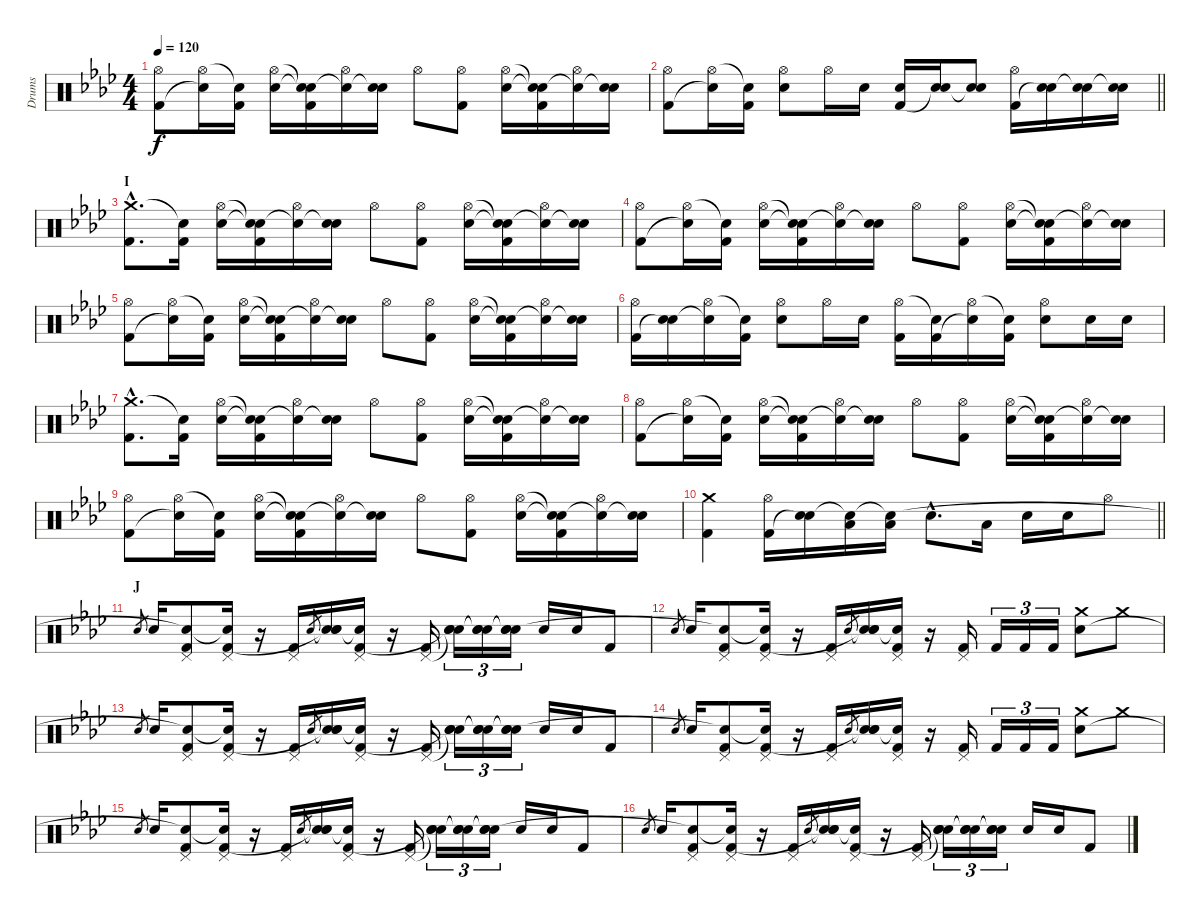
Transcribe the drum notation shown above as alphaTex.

\track ("Drums" "Drums") {instrument percussion}
\staff {score}
\articulation defaults
\ts (4 4)
\tempo 120
\clef neutral
\ks fminor
("Hi-Hat (open)" "Kick (hit) 2").8{dy f} ("Hi-Hat (open)" "Snare (hit)"{t}).16 ("Snare (hit)"{t} "Kick (hit) 2").16 ("Hi-Hat (open)" "Electric Snare (hit)").16 ("Snare (hit)"{t} "Snare (hit)"{t} "Kick (hit) 2").16 ("Hi-Hat (open)" "Snare (hit)"{t}).16 ("Electric Snare (hit)" "Snare (hit)"{t}).16 "Hi-Hat (open)".8 ("Hi-Hat (open)" "Kick (hit) 2").8 ("Hi-Hat (open)" "Electric Snare (hit)").16 ("Snare (hit)"{t} "Snare (hit)"{t} "Kick (hit) 2").16 ("Hi-Hat (open)" "Snare (hit)"{t}).16 ("Electric Snare (hit)" "Snare (hit)"{t}).16 |
\barLineRight lightlight
("Hi-Hat (open)" "Kick (hit) 2").8 ("Hi-Hat (open)" "Snare (hit)"{t}).16 ("Snare (hit)"{t} "Kick (hit) 2").16 ("Hi-Hat (open)" "Electric Snare (hit)").8 "Hi-Hat (open)".16 "Electric Snare (hit)".16 ("Electric Snare (hit)" "Kick (hit) 2").16 ("Electric Snare (hit)" "Snare (hit)"{t}).16 ("Electric Snare (hit)" "Snare (hit)"{t}).8 ("Hi-Hat (open)" "Kick (hit) 2").16 ("Electric Snare (hit)" "Snare (hit)"{t}).16 ("Electric Snare (hit)" "Snare (hit)"{t}).16 ("Electric Snare (hit)" "Snare (hit)"{t}).16 |
\section ("" "I")
("Crash medium (hit)"{hac} "Kick (hit) 2"{hac}).8{d} ("Snare (hit)"{t} "Kick (hit) 2").16 ("Hi-Hat (open)" "Electric Snare (hit)").16 ("Snare (hit)"{t} "Snare (hit)"{t} "Kick (hit) 2").16 ("Hi-Hat (open)" "Snare (hit)"{t}).16 ("Electric Snare (hit)" "Snare (hit)"{t}).16 "Hi-Hat (open)".8 ("Hi-Hat (open)" "Kick (hit) 2").8 ("Hi-Hat (open)" "Electric Snare (hit)").16 ("Snare (hit)"{t} "Snare (hit)"{t} "Kick (hit) 2").16 ("Hi-Hat (open)" "Snare (hit)"{t}).16 ("Electric Snare (hit)" "Snare (hit)"{t}).16 |
("Hi-Hat (open)" "Kick (hit) 2").8 ("Hi-Hat (open)" "Snare (hit)"{t}).16 ("Snare (hit)"{t} "Kick (hit) 2").16 ("Hi-Hat (open)" "Electric Snare (hit)").16 ("Snare (hit)"{t} "Snare (hit)"{t} "Kick (hit) 2").16 ("Hi-Hat (open)" "Snare (hit)"{t}).16 ("Electric Snare (hit)" "Snare (hit)"{t}).16 "Hi-Hat (open)".8 ("Hi-Hat (open)" "Kick (hit) 2").8 ("Hi-Hat (open)" "Electric Snare (hit)").16 ("Snare (hit)"{t} "Snare (hit)"{t} "Kick (hit) 2").16 ("Hi-Hat (open)" "Snare (hit)"{t}).16 ("Electric Snare (hit)" "Snare (hit)"{t}).16 |
("Hi-Hat (open)" "Kick (hit) 2").8 ("Hi-Hat (open)" "Snare (hit)"{t}).16 ("Snare (hit)"{t} "Kick (hit) 2").16 ("Hi-Hat (open)" "Electric Snare (hit)").16 ("Snare (hit)"{t} "Snare (hit)"{t} "Kick (hit) 2").16 ("Hi-Hat (open)" "Snare (hit)"{t}).16 ("Electric Snare (hit)" "Snare (hit)"{t}).16 "Hi-Hat (open)".8 ("Hi-Hat (open)" "Kick (hit) 2").8 ("Hi-Hat (open)" "Electric Snare (hit)").16 ("Snare (hit)"{t} "Snare (hit)"{t} "Kick (hit) 2").16 ("Hi-Hat (open)" "Snare (hit)"{t}).16 ("Electric Snare (hit)" "Snare (hit)"{t}).16 |
("Hi-Hat (open)" "Kick (hit) 2").16 ("Electric Snare (hit)" "Snare (hit)"{t}).16 ("Hi-Hat (open)" "Snare (hit)"{t}).16 ("Snare (hit)"{t} "Kick (hit) 2").16 ("Hi-Hat (open)" "Electric Snare (hit)").8 "Hi-Hat (open)".16 "Electric Snare (hit)".16 ("Hi-Hat (open)" "Kick (hit) 2").16 ("Snare (hit)"{t} "Kick (hit) 2").16 ("Hi-Hat (open)" "Snare (hit)"{t}).16 ("Snare (hit)"{t} "Kick (hit) 2").16 ("Hi-Hat (open)" "Electric Snare (hit)").8 "Electric Snare (hit)".16 "Electric Snare (hit)".16 |
("Crash medium (hit)"{hac} "Kick (hit) 2"{hac}).8{d} ("Snare (hit)"{t} "Kick (hit) 2").16 ("Hi-Hat (open)" "Electric Snare (hit)").16 ("Snare (hit)"{t} "Snare (hit)"{t} "Kick (hit) 2").16 ("Hi-Hat (open)" "Snare (hit)"{t}).16 ("Electric Snare (hit)" "Snare (hit)"{t}).16 "Hi-Hat (open)".8 ("Hi-Hat (open)" "Kick (hit) 2").8 ("Hi-Hat (open)" "Electric Snare (hit)").16 ("Snare (hit)"{t} "Snare (hit)"{t} "Kick (hit) 2").16 ("Hi-Hat (open)" "Snare (hit)"{t}).16 ("Electric Snare (hit)" "Snare (hit)"{t}).16 |
("Hi-Hat (open)" "Kick (hit) 2").8 ("Hi-Hat (open)" "Snare (hit)"{t}).16 ("Snare (hit)"{t} "Kick (hit) 2").16 ("Hi-Hat (open)" "Electric Snare (hit)").16 ("Snare (hit)"{t} "Snare (hit)"{t} "Kick (hit) 2").16 ("Hi-Hat (open)" "Snare (hit)"{t}).16 ("Electric Snare (hit)" "Snare (hit)"{t}).16 "Hi-Hat (open)".8 ("Hi-Hat (open)" "Kick (hit) 2").8 ("Hi-Hat (open)" "Electric Snare (hit)").16 ("Snare (hit)"{t} "Snare (hit)"{t} "Kick (hit) 2").16 ("Hi-Hat (open)" "Snare (hit)"{t}).16 ("Electric Snare (hit)" "Snare (hit)"{t}).16 |
("Hi-Hat (open)" "Kick (hit) 2").8 ("Hi-Hat (open)" "Snare (hit)"{t}).16 ("Snare (hit)"{t} "Kick (hit) 2").16 ("Hi-Hat (open)" "Electric Snare (hit)").16 ("Snare (hit)"{t} "Snare (hit)"{t} "Kick (hit) 2").16 ("Hi-Hat (open)" "Snare (hit)"{t}).16 ("Electric Snare (hit)" "Snare (hit)"{t}).16 "Hi-Hat (open)".8 ("Hi-Hat (open)" "Kick (hit) 2").8 ("Hi-Hat (open)" "Electric Snare (hit)").16 ("Snare (hit)"{t} "Snare (hit)"{t} "Kick (hit) 2").16 ("Hi-Hat (open)" "Snare (hit)"{t}).16 ("Electric Snare (hit)" "Snare (hit)"{t}).16 |
\barLineRight lightlight
("Crash medium (hit)" "Kick (hit) 2").4 ("Hi-Hat (open)" "Kick (hit) 2").16 ("Electric Snare (hit)" "Snare (hit)"{t}).16 ("Low Tom (hit)" "Snare (hit)"{t}).16 ("Low Floor Tom (hit)" "Snare (hit)"{t}).16 "Electric Snare (hit)"{hac}.8{d} "Low Tom (hit)".16 "Electric Snare (hit)".16 "Electric Snare (hit)".16 "Hi-Hat (open)".8 |
\section ("" "J")
"Electric Snare (hit)".8{gr} "Electric Snare (hit)".16 ("Pedal Hi-Hat (hit)" "Snare (hit)"{t} "Kick (hit) 2").8 ("Pedal Hi-Hat (hit)" "Snare (hit)"{t} "Kick (hit) 2").16 r.16 ("Pedal Hi-Hat (hit)" "Kick (hit) 2").16 "Electric Snare (hit)".8{gr} ("Snare (hit)"{t} "Electric Snare (hit)" "Snare (hit)"{t}).16 ("Pedal Hi-Hat (hit)" "Snare (hit)"{t} "Kick (hit) 2").16 r.16 ("Pedal Hi-Hat (hit)" "Kick (hit) 2").16 ("Snare (hit)"{t} "Electric Snare (hit)" "Snare (hit)"{t}).16{tu (3 2)} ("Snare (hit)"{t} "Electric Snare (hit)" "Snare (hit)"{t}).16{tu (3 2)} ("Snare (hit)"{t} "Electric Snare (hit)" "Snare (hit)"{t}).16{tu (3 2)} "Electric Snare (hit)".16 "Electric Snare (hit)".16 "Kick (hit) 2".8 |
"Electric Snare (hit)".8{gr} "Electric Snare (hit)".16 ("Pedal Hi-Hat (hit)" "Snare (hit)"{t} "Kick (hit) 2").8 ("Pedal Hi-Hat (hit)" "Snare (hit)"{t} "Kick (hit) 2").16 r.16 ("Pedal Hi-Hat (hit)" "Kick (hit) 2").16 "Electric Snare (hit)".8{gr} ("Snare (hit)"{t} "Electric Snare (hit)" "Snare (hit)"{t}).16 ("Pedal Hi-Hat (hit)" "Snare (hit)"{t} "Kick (hit) 2").16 r.16 ("Pedal Hi-Hat (hit)" "Kick (hit) 2").16 "Kick (hit) 2".16{tu (3 2)} "Kick (hit) 2".16{tu (3 2)} "Kick (hit) 2".16{tu (3 2)} ("Crash medium (hit)" "Electric Snare (hit)").8 "Crash medium (hit)".8 |
"Electric Snare (hit)".8{gr} "Electric Snare (hit)".16 ("Pedal Hi-Hat (hit)" "Snare (hit)"{t} "Kick (hit) 2").8 ("Pedal Hi-Hat (hit)" "Snare (hit)"{t} "Kick (hit) 2").16 r.16 ("Pedal Hi-Hat (hit)" "Kick (hit) 2").16 "Electric Snare (hit)".8{gr} ("Snare (hit)"{t} "Electric Snare (hit)" "Snare (hit)"{t}).16 ("Pedal Hi-Hat (hit)" "Snare (hit)"{t} "Kick (hit) 2").16 r.16 ("Pedal Hi-Hat (hit)" "Kick (hit) 2").16 ("Snare (hit)"{t} "Electric Snare (hit)" "Snare (hit)"{t}).16{tu (3 2)} ("Snare (hit)"{t} "Electric Snare (hit)" "Snare (hit)"{t}).16{tu (3 2)} ("Snare (hit)"{t} "Electric Snare (hit)" "Snare (hit)"{t}).16{tu (3 2)} "Electric Snare (hit)".16 "Electric Snare (hit)".16 "Kick (hit) 2".8 |
"Electric Snare (hit)".8{gr} "Electric Snare (hit)".16 ("Pedal Hi-Hat (hit)" "Snare (hit)"{t} "Kick (hit) 2").8 ("Pedal Hi-Hat (hit)" "Snare (hit)"{t} "Kick (hit) 2").16 r.16 ("Pedal Hi-Hat (hit)" "Kick (hit) 2").16 "Electric Snare (hit)".8{gr} ("Snare (hit)"{t} "Electric Snare (hit)" "Snare (hit)"{t}).16 ("Pedal Hi-Hat (hit)" "Snare (hit)"{t} "Kick (hit) 2").16 r.16 ("Pedal Hi-Hat (hit)" "Kick (hit) 2").16 "Kick (hit) 2".16{tu (3 2)} "Kick (hit) 2".16{tu (3 2)} "Kick (hit) 2".16{tu (3 2)} ("Crash medium (hit)" "Electric Snare (hit)").8 "Crash medium (hit)".8 |
"Electric Snare (hit)".8{gr} "Electric Snare (hit)".16 ("Pedal Hi-Hat (hit)" "Snare (hit)"{t} "Kick (hit) 2").8 ("Pedal Hi-Hat (hit)" "Snare (hit)"{t} "Kick (hit) 2").16 r.16 ("Pedal Hi-Hat (hit)" "Kick (hit) 2").16 "Electric Snare (hit)".8{gr} ("Snare (hit)"{t} "Electric Snare (hit)" "Snare (hit)"{t}).16 ("Pedal Hi-Hat (hit)" "Snare (hit)"{t} "Kick (hit) 2").16 r.16 ("Pedal Hi-Hat (hit)" "Kick (hit) 2").16 ("Snare (hit)"{t} "Electric Snare (hit)" "Snare (hit)"{t}).16{tu (3 2)} ("Snare (hit)"{t} "Electric Snare (hit)" "Snare (hit)"{t}).16{tu (3 2)} ("Snare (hit)"{t} "Electric Snare (hit)" "Snare (hit)"{t}).16{tu (3 2)} "Electric Snare (hit)".16 "Electric Snare (hit)".16 "Kick (hit) 2".8 |
"Electric Snare (hit)".8{gr} "Electric Snare (hit)".16 ("Pedal Hi-Hat (hit)" "Snare (hit)"{t} "Kick (hit) 2").8 ("Pedal Hi-Hat (hit)" "Snare (hit)"{t} "Kick (hit) 2").16 r.16 ("Pedal Hi-Hat (hit)" "Kick (hit) 2").16 "Electric Snare (hit)".8{gr} ("Snare (hit)"{t} "Electric Snare (hit)" "Snare (hit)"{t}).16 ("Pedal Hi-Hat (hit)" "Snare (hit)"{t} "Kick (hit) 2").16 r.16 ("Pedal Hi-Hat (hit)" "Kick (hit) 2").16 ("Snare (hit)"{t} "Electric Snare (hit)" "Snare (hit)"{t}).16{tu (3 2)} ("Snare (hit)"{t} "Electric Snare (hit)" "Snare (hit)"{t}).16{tu (3 2)} ("Snare (hit)"{t} "Electric Snare (hit)" "Snare (hit)"{t}).16{tu (3 2)} "Electric Snare (hit)".16 "Electric Snare (hit)".16 "Kick (hit) 2".8
